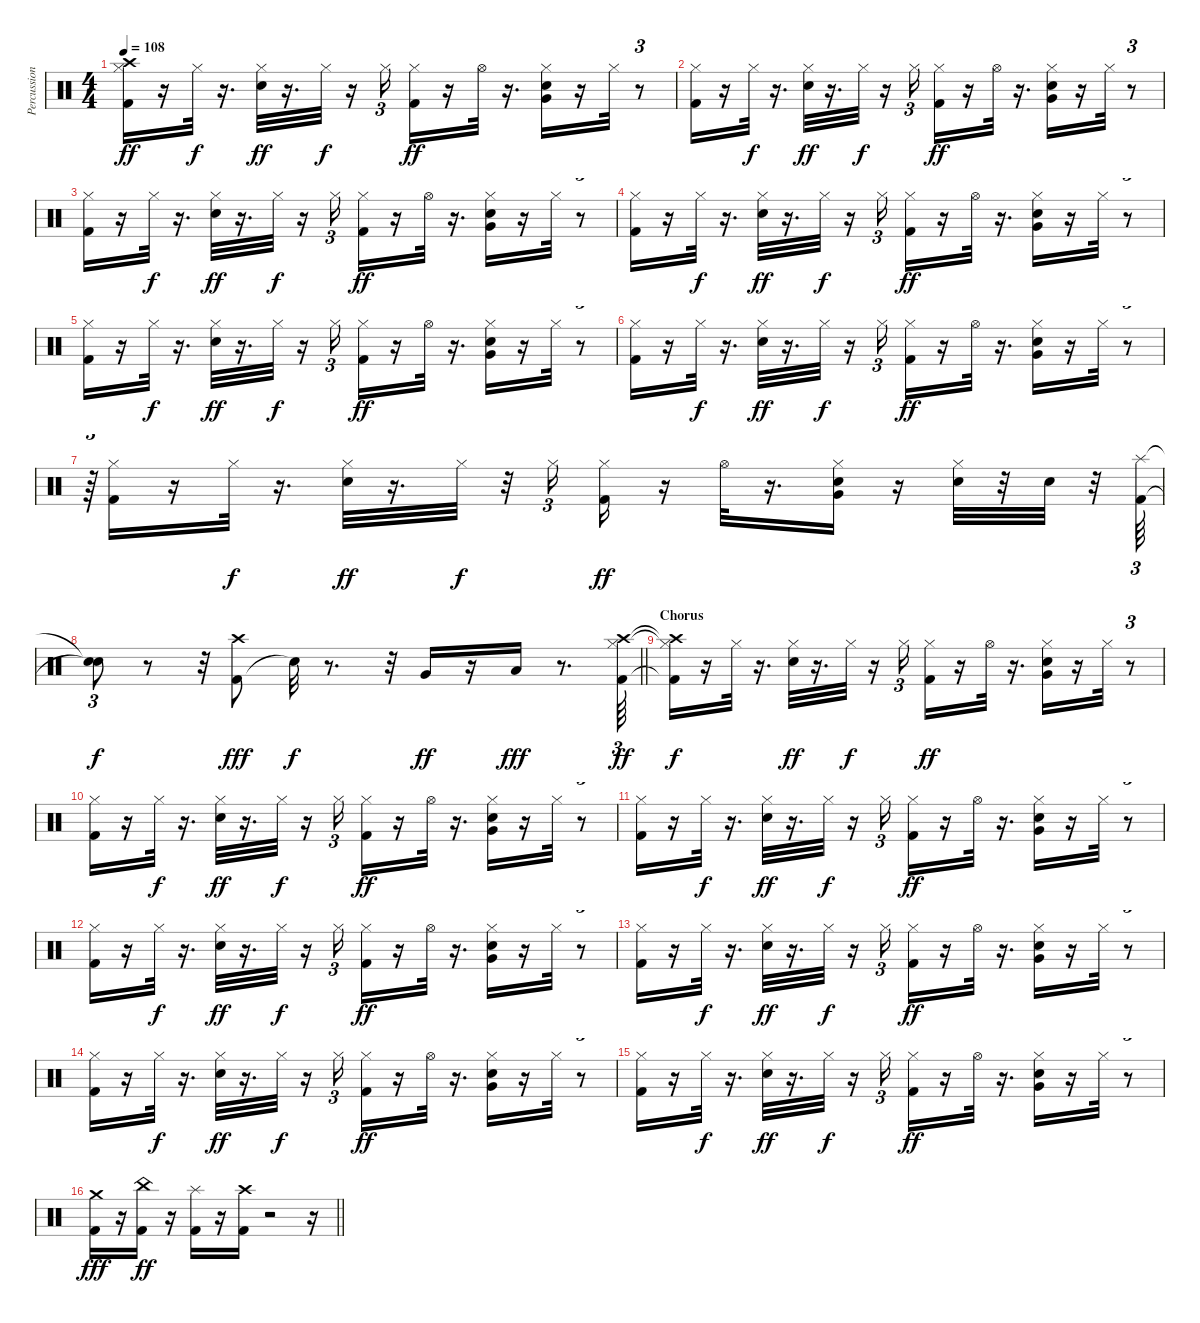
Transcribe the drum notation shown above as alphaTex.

\track ("Percussion" "Percussion") {instrument percussion}
\staff {score}
\articulation defaults
\ts (4 4)
\tempo 108
\clef neutral
\ks c
("Kick (hit) 2" "Hi-Hat (closed)" "Crash high (hit)").16{dy ff volume 12} r.16 "Hi-Hat (closed)".32{dy f} r.16{d} ("Snare (hit) 2" "Hi-Hat (closed)").32{dy ff} r.16{d} "Hi-Hat (closed)".32{dy f} r.16 "Hi-Hat (closed)".16{tu (3 2)} ("Hi-Hat (closed)" "Kick (hit) 2").16{dy ff} r.16 "Hi-Hat (open)".32 r.16{d} ("Snare (hit) 2" "Very Low Tom (hit)" "Hi-Hat (closed)").16 r.16 "Hi-Hat (closed)".32 r.8{tu (3 2)} |
("Kick (hit) 2" "Hi-Hat (closed)").16{volume 12} r.16 "Hi-Hat (closed)".32{dy f} r.16{d} ("Snare (hit) 2" "Hi-Hat (closed)").32{dy ff} r.16{d} "Hi-Hat (closed)".32{dy f} r.16 "Hi-Hat (closed)".16{tu (3 2)} ("Hi-Hat (closed)" "Kick (hit) 2").16{dy ff} r.16 "Hi-Hat (open)".32 r.16{d} ("Snare (hit) 2" "Very Low Tom (hit)" "Hi-Hat (closed)").16 r.16 "Hi-Hat (closed)".32 r.8{tu (3 2)} |
("Kick (hit) 2" "Hi-Hat (closed)").16{volume 12} r.16 "Hi-Hat (closed)".32{dy f} r.16{d} ("Snare (hit) 2" "Hi-Hat (closed)").32{dy ff} r.16{d} "Hi-Hat (closed)".32{dy f} r.16 "Hi-Hat (closed)".16{tu (3 2)} ("Hi-Hat (closed)" "Kick (hit) 2").16{dy ff} r.16 "Hi-Hat (open)".32 r.16{d} ("Snare (hit) 2" "Very Low Tom (hit)" "Hi-Hat (closed)").16 r.16 "Hi-Hat (closed)".32 r.8{tu (3 2)} |
("Kick (hit) 2" "Hi-Hat (closed)").16{volume 12} r.16 "Hi-Hat (closed)".32{dy f} r.16{d} ("Snare (hit) 2" "Hi-Hat (closed)").32{dy ff} r.16{d} "Hi-Hat (closed)".32{dy f} r.16 "Hi-Hat (closed)".16{tu (3 2)} ("Hi-Hat (closed)" "Kick (hit) 2").16{dy ff} r.16 "Hi-Hat (open)".32 r.16{d} ("Snare (hit) 2" "Very Low Tom (hit)" "Hi-Hat (closed)").16 r.16 "Hi-Hat (closed)".32 r.8{tu (3 2)} |
("Kick (hit) 2" "Hi-Hat (closed)").16{volume 12} r.16 "Hi-Hat (closed)".32{dy f} r.16{d} ("Snare (hit) 2" "Hi-Hat (closed)").32{dy ff} r.16{d} "Hi-Hat (closed)".32{dy f} r.16 "Hi-Hat (closed)".16{tu (3 2)} ("Hi-Hat (closed)" "Kick (hit) 2").16{dy ff} r.16 "Hi-Hat (open)".32 r.16{d} ("Snare (hit) 2" "Very Low Tom (hit)" "Hi-Hat (closed)").16 r.16 "Hi-Hat (closed)".32 r.8{tu (3 2)} |
("Kick (hit) 2" "Hi-Hat (closed)").16{volume 12} r.16 "Hi-Hat (closed)".32{dy f} r.16{d} ("Snare (hit) 2" "Hi-Hat (closed)").32{dy ff} r.16{d} "Hi-Hat (closed)".32{dy f} r.16 "Hi-Hat (closed)".16{tu (3 2)} ("Hi-Hat (closed)" "Kick (hit) 2").16{dy ff} r.16 "Hi-Hat (open)".32 r.16{d} ("Snare (hit) 2" "Very Low Tom (hit)" "Hi-Hat (closed)").16 r.16 "Hi-Hat (closed)".32 r.8{tu (3 2)} |
r.64{tu (3 2)} ("Kick (hit) 2" "Hi-Hat (closed)").16 r.16 "Hi-Hat (closed)".32{dy f} r.16{d} ("Snare (hit) 2" "Hi-Hat (closed)").32{dy ff} r.16{d} "Hi-Hat (closed)".32{dy f} r.32 "Hi-Hat (closed)".16{tu (3 2)} ("Hi-Hat (closed)" "Kick (hit) 2").16{dy ff} r.16 "Hi-Hat (open)".32 r.16{d} ("Snare (hit) 2" "Very Low Tom (hit)" "Hi-Hat (closed)").16 r.16 ("Snare (hit) 2" "Hi-Hat (closed)").32 r.32 "Snare (hit) 2".32 r.32 ("Kick (hit) 2" "Splash (hit)").64{tu (3 2)} |
\barLineRight lightlight
("Snare (hit)"{t} "Snare (hit)"{t}).8{tu (3 2) dy f} r.8 r.32 ("Kick (hit) 2" "Crash high (hit)").8{dy fff} "Snare (hit)"{t}.32{dy f} r.8{d} r.32 "Very Low Tom (hit)".16{dy ff} r.16 "Low Floor Tom (hit)".16{dy fff} r.8{d} ("Kick (hit) 2" "Hi-Hat (closed)" "Crash high (hit)").64{tu (3 2) dy ff volume 12} |
\section ("" "Chorus")
("Kick (hit) 2"{t} "Hi-Hat (closed)"{t} "Crash high (hit)"{t}).16{dy f volume 12} r.16 "Hi-Hat (closed)".32 r.16{d} ("Snare (hit) 2" "Hi-Hat (closed)").32{dy ff} r.16{d} "Hi-Hat (closed)".32{dy f} r.16 "Hi-Hat (closed)".16{tu (3 2)} ("Hi-Hat (closed)" "Kick (hit) 2").16{dy ff} r.16 "Hi-Hat (open)".32 r.16{d} ("Snare (hit) 2" "Very Low Tom (hit)" "Hi-Hat (closed)").16 r.16 "Hi-Hat (closed)".32 r.8{tu (3 2)} |
("Kick (hit) 2" "Hi-Hat (closed)").16{volume 12} r.16 "Hi-Hat (closed)".32{dy f} r.16{d} ("Snare (hit) 2" "Hi-Hat (closed)").32{dy ff} r.16{d} "Hi-Hat (closed)".32{dy f} r.16 "Hi-Hat (closed)".16{tu (3 2)} ("Hi-Hat (closed)" "Kick (hit) 2").16{dy ff} r.16 "Hi-Hat (open)".32 r.16{d} ("Snare (hit) 2" "Very Low Tom (hit)" "Hi-Hat (closed)").16 r.16 "Hi-Hat (closed)".32 r.8{tu (3 2)} |
("Kick (hit) 2" "Hi-Hat (closed)").16{volume 12} r.16 "Hi-Hat (closed)".32{dy f} r.16{d} ("Snare (hit) 2" "Hi-Hat (closed)").32{dy ff} r.16{d} "Hi-Hat (closed)".32{dy f} r.16 "Hi-Hat (closed)".16{tu (3 2)} ("Hi-Hat (closed)" "Kick (hit) 2").16{dy ff} r.16 "Hi-Hat (open)".32 r.16{d} ("Snare (hit) 2" "Very Low Tom (hit)" "Hi-Hat (closed)").16 r.16 "Hi-Hat (closed)".32 r.8{tu (3 2)} |
("Kick (hit) 2" "Hi-Hat (closed)").16{volume 12} r.16 "Hi-Hat (closed)".32{dy f} r.16{d} ("Snare (hit) 2" "Hi-Hat (closed)").32{dy ff} r.16{d} "Hi-Hat (closed)".32{dy f} r.16 "Hi-Hat (closed)".16{tu (3 2)} ("Hi-Hat (closed)" "Kick (hit) 2").16{dy ff} r.16 "Hi-Hat (open)".32 r.16{d} ("Snare (hit) 2" "Very Low Tom (hit)" "Hi-Hat (closed)").16 r.16 "Hi-Hat (closed)".32 r.8{tu (3 2)} |
("Kick (hit) 2" "Hi-Hat (closed)").16{volume 12} r.16 "Hi-Hat (closed)".32{dy f} r.16{d} ("Snare (hit) 2" "Hi-Hat (closed)").32{dy ff} r.16{d} "Hi-Hat (closed)".32{dy f} r.16 "Hi-Hat (closed)".16{tu (3 2)} ("Hi-Hat (closed)" "Kick (hit) 2").16{dy ff} r.16 "Hi-Hat (open)".32 r.16{d} ("Snare (hit) 2" "Very Low Tom (hit)" "Hi-Hat (closed)").16 r.16 "Hi-Hat (closed)".32 r.8{tu (3 2)} |
("Kick (hit) 2" "Hi-Hat (closed)").16{volume 12} r.16 "Hi-Hat (closed)".32{dy f} r.16{d} ("Snare (hit) 2" "Hi-Hat (closed)").32{dy ff} r.16{d} "Hi-Hat (closed)".32{dy f} r.16 "Hi-Hat (closed)".16{tu (3 2)} ("Hi-Hat (closed)" "Kick (hit) 2").16{dy ff} r.16 "Hi-Hat (open)".32 r.16{d} ("Snare (hit) 2" "Very Low Tom (hit)" "Hi-Hat (closed)").16 r.16 "Hi-Hat (closed)".32 r.8{tu (3 2)} |
("Kick (hit) 2" "Hi-Hat (closed)").16{volume 12} r.16 "Hi-Hat (closed)".32{dy f} r.16{d} ("Snare (hit) 2" "Hi-Hat (closed)").32{dy ff} r.16{d} "Hi-Hat (closed)".32{dy f} r.16 "Hi-Hat (closed)".16{tu (3 2)} ("Hi-Hat (closed)" "Kick (hit) 2").16{dy ff} r.16 "Hi-Hat (open)".32 r.16{d} ("Snare (hit) 2" "Very Low Tom (hit)" "Hi-Hat (closed)").16 r.16 "Hi-Hat (closed)".32 r.8{tu (3 2)} |
\barLineRight lightlight
("Kick (hit) 2" "Crash medium (hit)").16{dy fff} r.16 ("Kick (hit) 2" "China (hit)").16{dy ff} r.16 ("Kick (hit) 2" "Splash (hit)").16 r.16 ("Kick (hit) 2" "Crash high (hit)").16 r.2 r.16
